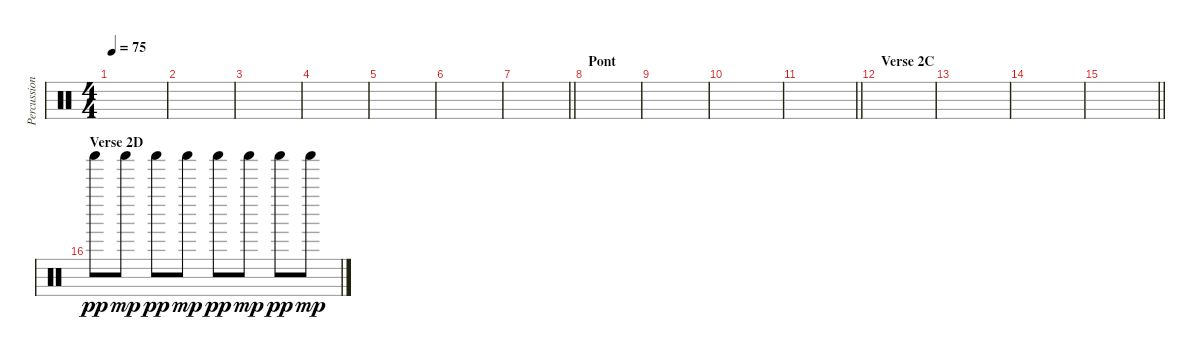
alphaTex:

\track ("Percussions" "Percussion") {instrument percussion}
\staff {score}
\articulation defaults
\ts (4 4)
\tempo 75
\clef neutral
\ks c
|
|
|
|
|
|
\barLineRight lightlight
|
\section ("" "Pont")
|
|
|
\barLineRight lightlight
|
\section ("" "Verse 2C")
|
|
|
\barLineRight lightlight
|
\section ("" "Verse 2D")
"Shaker (hit)".8{dy pp} "Shaker (hit)".8{dy mp} "Shaker (hit)".8{dy pp} "Shaker (hit)".8{dy mp} "Shaker (hit)".8{dy pp} "Shaker (hit)".8{dy mp} "Shaker (hit)".8{dy pp} "Shaker (hit)".8{dy mp}
